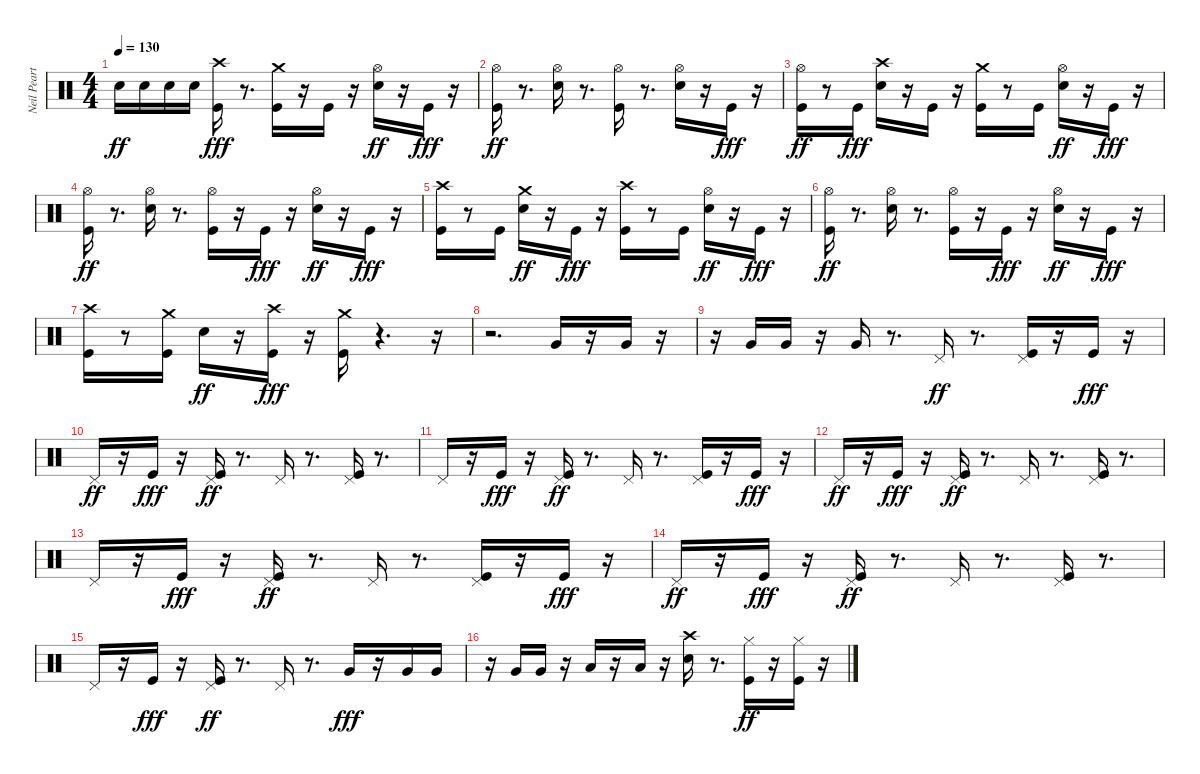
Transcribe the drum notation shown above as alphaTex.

\track ("Neil Peart" "Neil Peart") {instrument percussion}
\staff {score}
\articulation defaults
\ts (4 4)
\tempo 130
\clef neutral
\ks c "Snare (hit) 2".16{dy ff} "Snare (hit) 2".16 "Snare (hit) 2".16 "Snare (hit) 2".16
("Kick (hit)" "Crash high (hit)").16{dy fff} r.8{d} ("Crash medium (hit)" "Kick (hit)").16 r.16 "Kick (hit)".16 r.16 ("Snare (hit) 2" "Hi-Hat (open)").16{dy ff} r.16 "Kick (hit)".16{dy fff} r.16 |
("Kick (hit)" "Hi-Hat (open)").16{dy ff} r.8{d} ("Snare (hit) 2" "Hi-Hat (open)").16 r.8{d} ("Kick (hit)" "Hi-Hat (open)").16 r.8{d} ("Snare (hit) 2" "Hi-Hat (open)").16 r.16 "Kick (hit)".16{dy fff} r.16 |
("Kick (hit)" "Hi-Hat (open)").16{dy ff} r.8 "Kick (hit)".16{dy fff} ("Snare (hit) 2" "Crash high (hit)").16 r.16 "Kick (hit)".16 r.16 ("Crash medium (hit)" "Kick (hit)").16 r.8 "Kick (hit)".16 ("Snare (hit) 2" "Hi-Hat (open)").16{dy ff} r.16 "Kick (hit)".16{dy fff} r.16 |
("Kick (hit)" "Hi-Hat (open)").16{dy ff} r.8{d} ("Snare (hit) 2" "Hi-Hat (open)").16 r.8{d} ("Kick (hit)" "Hi-Hat (open)").16 r.16 "Kick (hit)".16{dy fff} r.16 ("Snare (hit) 2" "Hi-Hat (open)").16{dy ff} r.16 "Kick (hit)".16{dy fff} r.16 |
("Kick (hit)" "Crash high (hit)").16 r.8 "Kick (hit)".16 ("Crash medium (hit)" "Snare (hit) 2").16{dy ff} r.16 "Kick (hit)".16{dy fff} r.16 ("Kick (hit)" "Crash high (hit)").16 r.8 "Kick (hit)".16 ("Snare (hit) 2" "Hi-Hat (open)").16{dy ff} r.16 "Kick (hit)".16{dy fff} r.16 |
("Kick (hit)" "Hi-Hat (open)").16{dy ff} r.8{d} ("Snare (hit) 2" "Hi-Hat (open)").16 r.8{d} ("Kick (hit)" "Hi-Hat (open)").16 r.16 "Kick (hit)".16{dy fff} r.16 ("Snare (hit) 2" "Hi-Hat (open)").16{dy ff} r.16 "Kick (hit)".16{dy fff} r.16 |
("Kick (hit)" "Crash high (hit)").16 r.8 ("Crash medium (hit)" "Kick (hit)").16 "Snare (hit) 2".16{dy ff} r.16 ("Kick (hit)" "Crash high (hit)").16{dy fff} r.16 ("Crash medium (hit)" "Kick (hit)").16 r.4{d} r.16 |
r.2{d} "Very Low Tom (hit)".16 r.16 "Very Low Tom (hit)".16 r.16 |
r.16 "Very Low Tom (hit)".16 "Very Low Tom (hit)".16 r.16 "Very Low Tom (hit)".16 r.8{d} "Pedal Hi-Hat (hit)".16{dy ff} r.8{d} ("Kick (hit)" "Pedal Hi-Hat (hit)").16 r.16 "Kick (hit)".16{dy fff} r.16 |
"Pedal Hi-Hat (hit)".16{dy ff} r.16 "Kick (hit)".16{dy fff} r.16 ("Kick (hit)" "Pedal Hi-Hat (hit)").16{dy ff} r.8{d} "Pedal Hi-Hat (hit)".16 r.8{d} ("Kick (hit)" "Pedal Hi-Hat (hit)").16 r.8{d} |
"Pedal Hi-Hat (hit)".16 r.16 "Kick (hit)".16{dy fff} r.16 ("Kick (hit)" "Pedal Hi-Hat (hit)").16{dy ff} r.8{d} "Pedal Hi-Hat (hit)".16 r.8{d} ("Kick (hit)" "Pedal Hi-Hat (hit)").16 r.16 "Kick (hit)".16{dy fff} r.16 |
"Pedal Hi-Hat (hit)".16{dy ff} r.16 "Kick (hit)".16{dy fff} r.16 ("Kick (hit)" "Pedal Hi-Hat (hit)").16{dy ff} r.8{d} "Pedal Hi-Hat (hit)".16 r.8{d} ("Kick (hit)" "Pedal Hi-Hat (hit)").16 r.8{d} |
"Pedal Hi-Hat (hit)".16 r.16 "Kick (hit)".16{dy fff} r.16 ("Kick (hit)" "Pedal Hi-Hat (hit)").16{dy ff} r.8{d} "Pedal Hi-Hat (hit)".16 r.8{d} ("Kick (hit)" "Pedal Hi-Hat (hit)").16 r.16 "Kick (hit)".16{dy fff} r.16 |
"Pedal Hi-Hat (hit)".16{dy ff} r.16 "Kick (hit)".16{dy fff} r.16 ("Kick (hit)" "Pedal Hi-Hat (hit)").16{dy ff} r.8{d} "Pedal Hi-Hat (hit)".16 r.8{d} ("Kick (hit)" "Pedal Hi-Hat (hit)").16 r.8{d} |
"Pedal Hi-Hat (hit)".16 r.16 "Kick (hit)".16{dy fff} r.16 ("Kick (hit)" "Pedal Hi-Hat (hit)").16{dy ff} r.8{d} "Pedal Hi-Hat (hit)".16 r.8{d} "Very Low Tom (hit)".16{dy fff} r.16 "Very Low Tom (hit)".16 "Very Low Tom (hit)".16 |
r.16 "Very Low Tom (hit)".16 "Very Low Tom (hit)".16 r.16 "Low Floor Tom (hit)".16 r.16 "Low Floor Tom (hit)".16 r.16 ("Snare (hit) 2" "Crash high (hit)").16 r.8{d} ("Kick (hit)" "Hi-Hat (closed)").16{dy ff} r.16 ("Kick (hit)" "Hi-Hat (closed)").16 r.16
